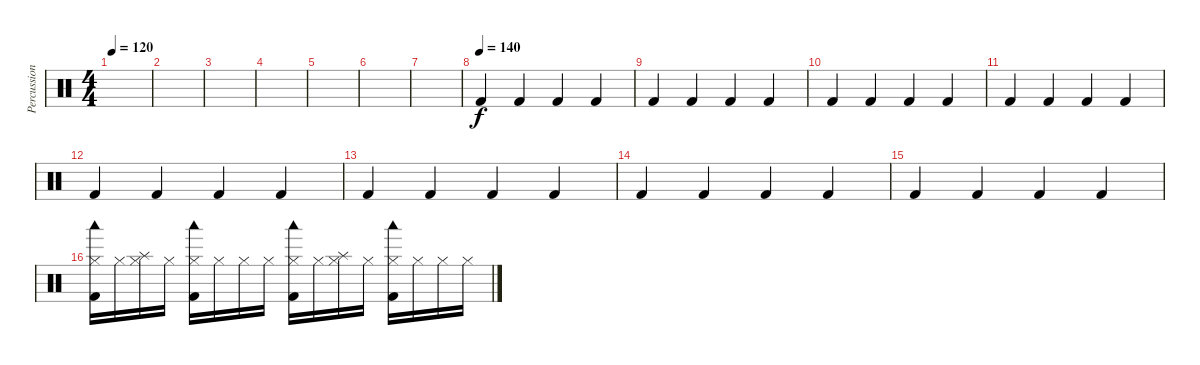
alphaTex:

\track ("Percussion" "Percussion") {instrument percussion}
\staff {score}
\articulation defaults
\ts (4 4)
\tempo 120
\clef neutral
\ks c
|
|
|
|
|
|
|
\tempo (140)
"Kick (hit) 2".4 "Kick (hit) 2".4 "Kick (hit) 2".4 "Kick (hit) 2".4 |
"Kick (hit) 2".4 "Kick (hit) 2".4 "Kick (hit) 2".4 "Kick (hit) 2".4 |
"Kick (hit) 2".4 "Kick (hit) 2".4 "Kick (hit) 2".4 "Kick (hit) 2".4 |
"Kick (hit) 2".4 "Kick (hit) 2".4 "Kick (hit) 2".4 "Kick (hit) 2".4 |
"Kick (hit) 2".4 "Kick (hit) 2".4 "Kick (hit) 2".4 "Kick (hit) 2".4 |
"Kick (hit) 2".4 "Kick (hit) 2".4 "Kick (hit) 2".4 "Kick (hit) 2".4 |
"Kick (hit) 2".4 "Kick (hit) 2".4 "Kick (hit) 2".4 "Kick (hit) 2".4 |
"Kick (hit) 2".4 "Kick (hit) 2".4 "Kick (hit) 2".4 "Kick (hit) 2".4 |
("Woodblock low (hit)" "Hi-Hat (closed)" "Kick (hit) 2").16 "Hi-Hat (closed)".16 ("Splash (hit)" "Hi-Hat (closed)").16 "Hi-Hat (closed)".16 ("Woodblock low (hit)" "Hi-Hat (closed)" "Kick (hit) 2").16 "Hi-Hat (closed)".16 "Hi-Hat (closed)".16 "Hi-Hat (closed)".16 ("Woodblock low (hit)" "Hi-Hat (closed)" "Kick (hit) 2").16 "Hi-Hat (closed)".16 ("Splash (hit)" "Hi-Hat (closed)").16 "Hi-Hat (closed)".16 ("Woodblock low (hit)" "Hi-Hat (closed)" "Kick (hit) 2").16 "Hi-Hat (closed)".16 "Hi-Hat (closed)".16 "Hi-Hat (closed)".16
